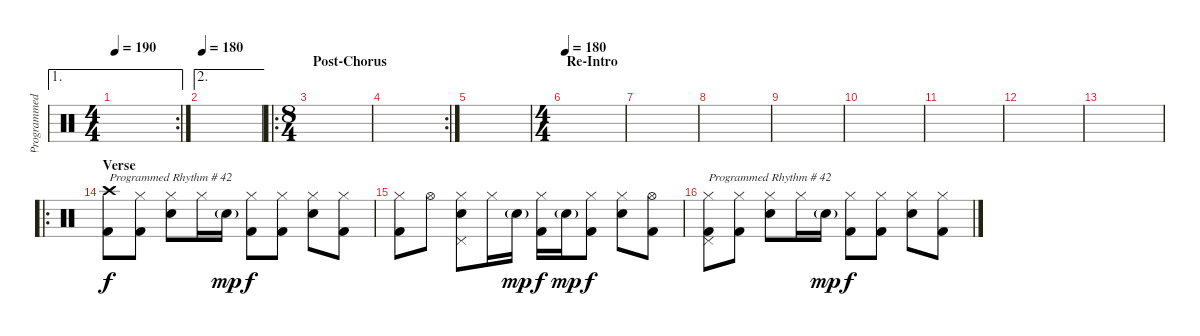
\track ("Programmed Drums" "Programmed") {instrument percussion}
\staff {score}
\articulation defaults
\ae 1
\rc 2
\ts (4 4)
\tempo 190
\clef neutral
\ks c
|
\ae 2
\tempo 180
|
\ro
\ts (8 4)
\section ("" "Post-Chorus")
|
\rc 2
|
|
\ts (4 4)
\section ("" "Re-Intro")
\tempo 180
|
|
|
|
|
|
|
|
\ro
\section ("" "Verse")
("Crash high (hit)" "Kick (hit) 2").8{txt "Programmed Rhythm # 42"} ("Hi-Hat (closed)" "Kick (hit) 2").8 ("Hi-Hat (closed)" "Snare (hit) 2").8 "Hi-Hat (closed)".16 "Snare (hit) 2"{g}.16{dy mp} ("Hi-Hat (closed)" "Kick (hit) 2").8{dy f} ("Hi-Hat (closed)" "Kick (hit) 2").8 ("Hi-Hat (closed)" "Snare (hit) 2").8 ("Hi-Hat (closed)" "Kick (hit) 2").8 |
("Hi-Hat (closed)" "Kick (hit) 2").8 "Hi-Hat (open)".8 ("Hi-Hat (closed)" "Snare (hit) 2" "Pedal Hi-Hat (hit)").8 "Hi-Hat (closed)".16 "Snare (hit) 2"{g}.16{dy mp} ("Hi-Hat (closed)" "Kick (hit) 2").16{dy f} "Snare (hit) 2"{g}.16{dy mp} ("Hi-Hat (closed)" "Kick (hit) 2").8{dy f} ("Hi-Hat (closed)" "Electric Snare (hit)").8 ("Hi-Hat (open)" "Kick (hit) 2").8 |
("Hi-Hat (closed)" "Pedal Hi-Hat (hit)" "Kick (hit) 2").8{txt "Programmed Rhythm # 42"} ("Hi-Hat (closed)" "Kick (hit) 2").8 ("Hi-Hat (closed)" "Snare (hit) 2").8 "Hi-Hat (closed)".16 "Snare (hit) 2"{g}.16{dy mp} ("Hi-Hat (closed)" "Kick (hit) 2").8{dy f} ("Hi-Hat (closed)" "Kick (hit) 2").8 ("Hi-Hat (closed)" "Snare (hit) 2").8 ("Hi-Hat (closed)" "Kick (hit) 2").8
